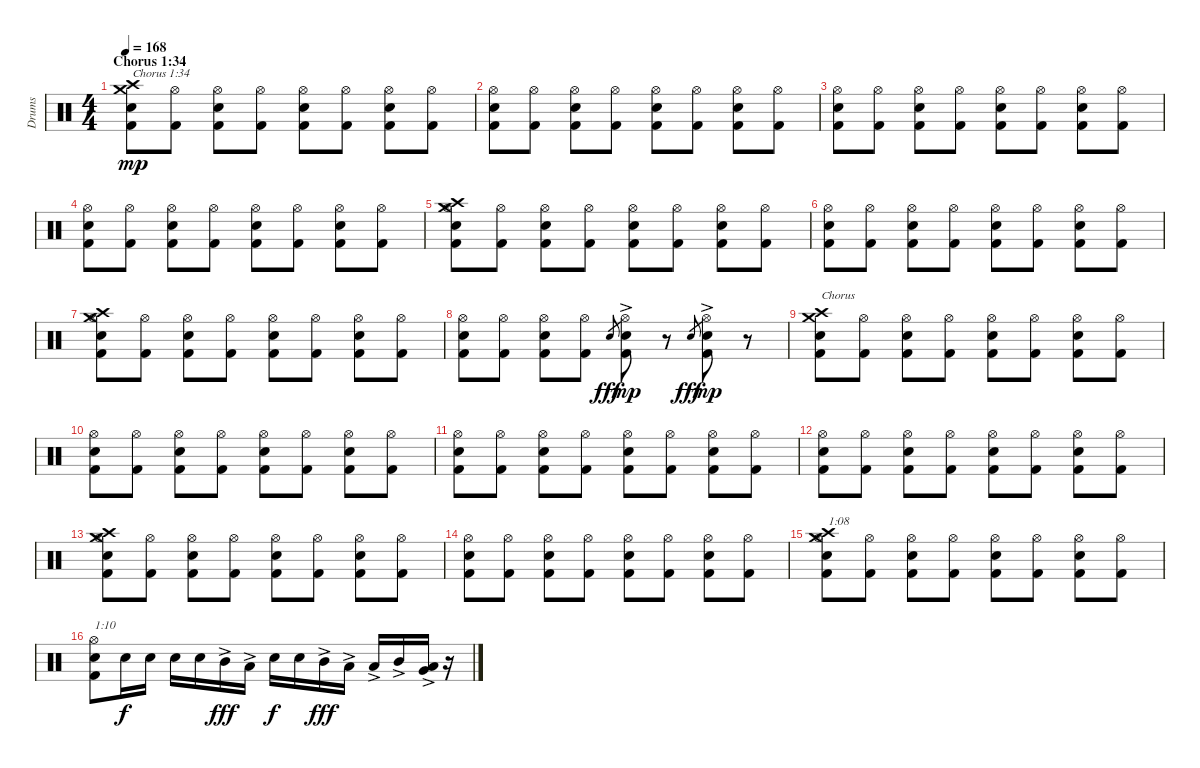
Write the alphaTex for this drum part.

\track ("Drums" "Drums") {instrument percussion}
\staff {score}
\articulation defaults
\ts (4 4)
\section ("" "Chorus 1:34")
\tempo 168
\clef neutral
\ks c
("Kick (hit) 2" "Electric Snare (hit)" "Crash medium (hit)" "Crash high (hit)").8{txt "Chorus 1:34" dy mp} ("Kick (hit) 2" "Hi-Hat (open)").8 ("Kick (hit) 2" "Electric Snare (hit)" "Hi-Hat (open)").8 ("Kick (hit) 2" "Hi-Hat (open)").8 ("Kick (hit) 2" "Electric Snare (hit)" "Hi-Hat (open)").8 ("Kick (hit) 2" "Hi-Hat (open)").8 ("Kick (hit) 2" "Electric Snare (hit)" "Hi-Hat (open)").8 ("Kick (hit) 2" "Hi-Hat (open)").8 |
("Kick (hit) 2" "Electric Snare (hit)" "Hi-Hat (open)").8 ("Kick (hit) 2" "Hi-Hat (open)").8 ("Kick (hit) 2" "Electric Snare (hit)" "Hi-Hat (open)").8 ("Kick (hit) 2" "Hi-Hat (open)").8 ("Kick (hit) 2" "Electric Snare (hit)" "Hi-Hat (open)").8 ("Kick (hit) 2" "Hi-Hat (open)").8 ("Kick (hit) 2" "Electric Snare (hit)" "Hi-Hat (open)").8 ("Kick (hit) 2" "Hi-Hat (open)").8 |
("Kick (hit) 2" "Electric Snare (hit)" "Hi-Hat (open)").8 ("Kick (hit) 2" "Hi-Hat (open)").8 ("Kick (hit) 2" "Electric Snare (hit)" "Hi-Hat (open)").8 ("Kick (hit) 2" "Hi-Hat (open)").8 ("Kick (hit) 2" "Electric Snare (hit)" "Hi-Hat (open)").8 ("Kick (hit) 2" "Hi-Hat (open)").8 ("Kick (hit) 2" "Electric Snare (hit)" "Hi-Hat (open)").8 ("Kick (hit) 2" "Hi-Hat (open)").8 |
("Kick (hit) 2" "Electric Snare (hit)" "Hi-Hat (open)").8 ("Kick (hit) 2" "Hi-Hat (open)").8 ("Kick (hit) 2" "Electric Snare (hit)" "Hi-Hat (open)").8 ("Kick (hit) 2" "Hi-Hat (open)").8 ("Kick (hit) 2" "Electric Snare (hit)" "Hi-Hat (open)").8 ("Kick (hit) 2" "Hi-Hat (open)").8 ("Kick (hit) 2" "Electric Snare (hit)" "Hi-Hat (open)").8 ("Kick (hit) 2" "Hi-Hat (open)").8 |
("Kick (hit) 2" "Electric Snare (hit)" "Hi-Hat (open)" "Crash medium (hit)" "Crash high (hit)").8 ("Kick (hit) 2" "Hi-Hat (open)").8 ("Kick (hit) 2" "Electric Snare (hit)" "Hi-Hat (open)").8 ("Kick (hit) 2" "Hi-Hat (open)").8 ("Kick (hit) 2" "Electric Snare (hit)" "Hi-Hat (open)").8 ("Kick (hit) 2" "Hi-Hat (open)").8 ("Kick (hit) 2" "Electric Snare (hit)" "Hi-Hat (open)").8 ("Kick (hit) 2" "Hi-Hat (open)").8 |
("Kick (hit) 2" "Electric Snare (hit)" "Hi-Hat (open)").8 ("Kick (hit) 2" "Hi-Hat (open)").8 ("Kick (hit) 2" "Electric Snare (hit)" "Hi-Hat (open)").8 ("Kick (hit) 2" "Hi-Hat (open)").8 ("Kick (hit) 2" "Electric Snare (hit)" "Hi-Hat (open)").8 ("Kick (hit) 2" "Hi-Hat (open)").8 ("Kick (hit) 2" "Electric Snare (hit)" "Hi-Hat (open)").8 ("Kick (hit) 2" "Hi-Hat (open)").8 |
("Kick (hit) 2" "Electric Snare (hit)" "Hi-Hat (open)" "Crash medium (hit)" "Crash high (hit)").8 ("Kick (hit) 2" "Hi-Hat (open)").8 ("Kick (hit) 2" "Electric Snare (hit)" "Hi-Hat (open)").8 ("Kick (hit) 2" "Hi-Hat (open)").8 ("Kick (hit) 2" "Electric Snare (hit)" "Hi-Hat (open)").8 ("Kick (hit) 2" "Hi-Hat (open)").8 ("Kick (hit) 2" "Electric Snare (hit)" "Hi-Hat (open)").8 ("Kick (hit) 2" "Hi-Hat (open)").8 |
("Kick (hit) 2" "Electric Snare (hit)" "Hi-Hat (open)").8 ("Kick (hit) 2" "Hi-Hat (open)").8 ("Kick (hit) 2" "Electric Snare (hit)" "Hi-Hat (open)").8 ("Kick (hit) 2" "Hi-Hat (open)").8 "Electric Snare (hit)".8{gr dy fff} ("Kick (hit) 2" "Electric Snare (hit)"{ac} "Hi-Hat (open)").8{dy mp} r.8 "Electric Snare (hit)".8{gr dy fff} ("Kick (hit) 2" "Electric Snare (hit)"{ac} "Hi-Hat (open)").8{dy mp} r.8 |
("Kick (hit) 2" "Electric Snare (hit)" "Crash medium (hit)" "Crash high (hit)").8{txt "Chorus"} ("Kick (hit) 2" "Hi-Hat (open)").8 ("Kick (hit) 2" "Electric Snare (hit)" "Hi-Hat (open)").8 ("Kick (hit) 2" "Hi-Hat (open)").8 ("Kick (hit) 2" "Electric Snare (hit)" "Hi-Hat (open)").8 ("Kick (hit) 2" "Hi-Hat (open)").8 ("Kick (hit) 2" "Electric Snare (hit)" "Hi-Hat (open)").8 ("Kick (hit) 2" "Hi-Hat (open)").8 |
("Kick (hit) 2" "Electric Snare (hit)" "Hi-Hat (open)").8 ("Kick (hit) 2" "Hi-Hat (open)").8 ("Kick (hit) 2" "Electric Snare (hit)" "Hi-Hat (open)").8 ("Kick (hit) 2" "Hi-Hat (open)").8 ("Kick (hit) 2" "Electric Snare (hit)" "Hi-Hat (open)").8 ("Kick (hit) 2" "Hi-Hat (open)").8 ("Kick (hit) 2" "Electric Snare (hit)" "Hi-Hat (open)").8 ("Kick (hit) 2" "Hi-Hat (open)").8 |
("Kick (hit) 2" "Electric Snare (hit)" "Hi-Hat (open)").8 ("Kick (hit) 2" "Hi-Hat (open)").8 ("Kick (hit) 2" "Electric Snare (hit)" "Hi-Hat (open)").8 ("Kick (hit) 2" "Hi-Hat (open)").8 ("Kick (hit) 2" "Electric Snare (hit)" "Hi-Hat (open)").8 ("Kick (hit) 2" "Hi-Hat (open)").8 ("Kick (hit) 2" "Electric Snare (hit)" "Hi-Hat (open)").8 ("Kick (hit) 2" "Hi-Hat (open)").8 |
("Kick (hit) 2" "Electric Snare (hit)" "Hi-Hat (open)").8 ("Kick (hit) 2" "Hi-Hat (open)").8 ("Kick (hit) 2" "Electric Snare (hit)" "Hi-Hat (open)").8 ("Kick (hit) 2" "Hi-Hat (open)").8 ("Kick (hit) 2" "Electric Snare (hit)" "Hi-Hat (open)").8 ("Kick (hit) 2" "Hi-Hat (open)").8 ("Kick (hit) 2" "Electric Snare (hit)" "Hi-Hat (open)").8 ("Kick (hit) 2" "Hi-Hat (open)").8 |
("Kick (hit) 2" "Electric Snare (hit)" "Hi-Hat (open)" "Crash medium (hit)" "Crash high (hit)").8 ("Kick (hit) 2" "Hi-Hat (open)").8 ("Kick (hit) 2" "Electric Snare (hit)" "Hi-Hat (open)").8 ("Kick (hit) 2" "Hi-Hat (open)").8 ("Kick (hit) 2" "Electric Snare (hit)" "Hi-Hat (open)").8 ("Kick (hit) 2" "Hi-Hat (open)").8 ("Kick (hit) 2" "Electric Snare (hit)" "Hi-Hat (open)").8 ("Kick (hit) 2" "Hi-Hat (open)").8 |
("Kick (hit) 2" "Electric Snare (hit)" "Hi-Hat (open)").8 ("Kick (hit) 2" "Hi-Hat (open)").8 ("Kick (hit) 2" "Electric Snare (hit)" "Hi-Hat (open)").8 ("Kick (hit) 2" "Hi-Hat (open)").8 ("Kick (hit) 2" "Electric Snare (hit)" "Hi-Hat (open)").8 ("Kick (hit) 2" "Hi-Hat (open)").8 ("Kick (hit) 2" "Electric Snare (hit)" "Hi-Hat (open)").8 ("Kick (hit) 2" "Hi-Hat (open)").8 |
("Kick (hit) 2" "Electric Snare (hit)" "Hi-Hat (open)" "Crash medium (hit)" "Crash high (hit)").8{txt "1:08"} ("Kick (hit) 2" "Hi-Hat (open)").8 ("Kick (hit) 2" "Electric Snare (hit)" "Hi-Hat (open)").8 ("Kick (hit) 2" "Hi-Hat (open)").8 ("Kick (hit) 2" "Electric Snare (hit)" "Hi-Hat (open)").8 ("Kick (hit) 2" "Hi-Hat (open)").8 ("Kick (hit) 2" "Electric Snare (hit)" "Hi-Hat (open)").8 ("Kick (hit) 2" "Hi-Hat (open)").8 |
("Kick (hit) 2" "Electric Snare (hit)" "Hi-Hat (open)").8{txt "1:10"} "Electric Snare (hit)".16{dy f} "Electric Snare (hit)".16 "Electric Snare (hit)".16 "Electric Snare (hit)".16 "Mid Tom (hit)"{ac}.16{dy fff} "Low Tom (hit)"{ac}.16 "Electric Snare (hit)".16{dy f} "Electric Snare (hit)".16 "Mid Tom (hit)"{ac}.16{dy fff} "Low Tom (hit)"{ac}.16 "Low Tom (hit)"{ac}.16 "Mid Tom (hit)"{ac}.16 ("Low Tom (hit)"{ac} "Very Low Tom (hit)"{ac}).16 r.16
